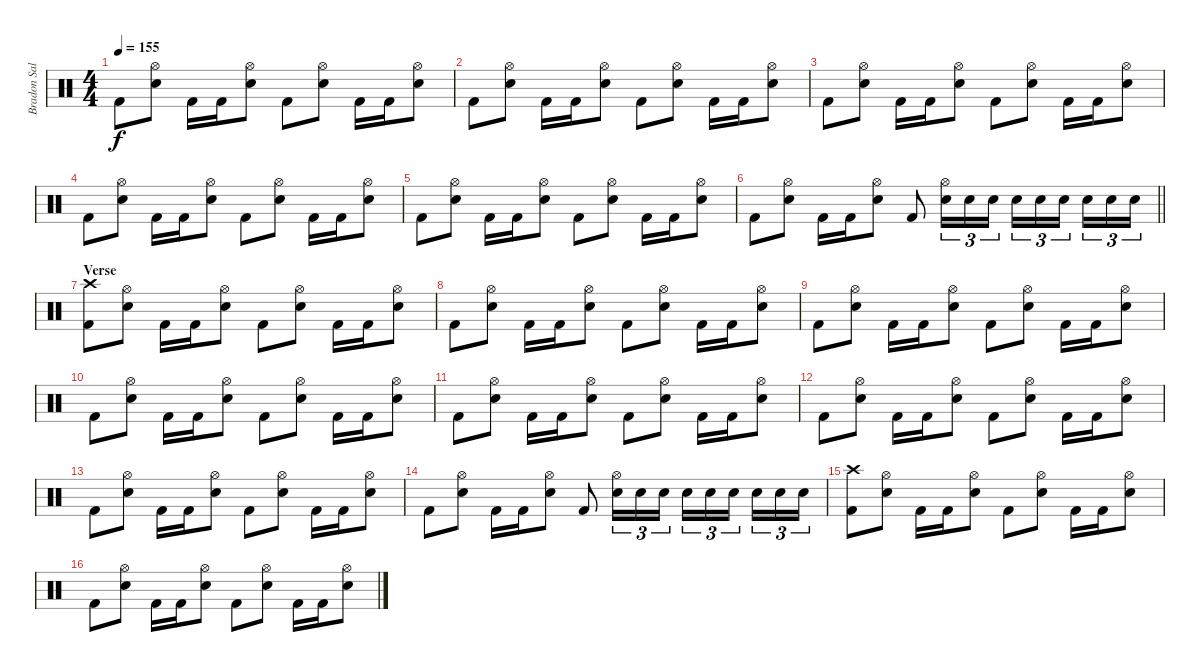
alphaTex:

\track ("Bradon Saller" "Bradon Sal") {instrument percussion}
\staff {score}
\articulation defaults
\ts (4 4)
\tempo 155
\clef neutral
\ks c "Kick (hit) 2".8{dy f}
("Hi-Hat (open)" "Electric Snare (hit)").8 "Kick (hit) 2".16 "Kick (hit) 2".16 ("Hi-Hat (open)" "Electric Snare (hit)").8 "Kick (hit) 2".8 ("Hi-Hat (open)" "Electric Snare (hit)").8 "Kick (hit) 2".16 "Kick (hit) 2".16 ("Hi-Hat (open)" "Electric Snare (hit)").8 |
"Kick (hit) 2".8 ("Hi-Hat (open)" "Electric Snare (hit)").8 "Kick (hit) 2".16 "Kick (hit) 2".16 ("Hi-Hat (open)" "Electric Snare (hit)").8 "Kick (hit) 2".8 ("Hi-Hat (open)" "Electric Snare (hit)").8 "Kick (hit) 2".16 "Kick (hit) 2".16 ("Hi-Hat (open)" "Electric Snare (hit)").8 |
"Kick (hit) 2".8 ("Hi-Hat (open)" "Electric Snare (hit)").8 "Kick (hit) 2".16 "Kick (hit) 2".16 ("Hi-Hat (open)" "Electric Snare (hit)").8 "Kick (hit) 2".8 ("Hi-Hat (open)" "Electric Snare (hit)").8 "Kick (hit) 2".16 "Kick (hit) 2".16 ("Hi-Hat (open)" "Electric Snare (hit)").8 |
"Kick (hit) 2".8 ("Hi-Hat (open)" "Electric Snare (hit)").8 "Kick (hit) 2".16 "Kick (hit) 2".16 ("Hi-Hat (open)" "Electric Snare (hit)").8 "Kick (hit) 2".8 ("Hi-Hat (open)" "Electric Snare (hit)").8 "Kick (hit) 2".16 "Kick (hit) 2".16 ("Hi-Hat (open)" "Electric Snare (hit)").8 |
"Kick (hit) 2".8 ("Hi-Hat (open)" "Electric Snare (hit)").8 "Kick (hit) 2".16 "Kick (hit) 2".16 ("Hi-Hat (open)" "Electric Snare (hit)").8 "Kick (hit) 2".8 ("Hi-Hat (open)" "Electric Snare (hit)").8 "Kick (hit) 2".16 "Kick (hit) 2".16 ("Hi-Hat (open)" "Electric Snare (hit)").8 |
\barLineRight lightlight "Kick (hit) 2".8
("Hi-Hat (open)" "Electric Snare (hit)").8 "Kick (hit) 2".16 "Kick (hit) 2".16 ("Hi-Hat (open)" "Electric Snare (hit)").8 "Kick (hit) 2".8 ("Hi-Hat (open)" "Electric Snare (hit)").16{tu (3 2)} "Electric Snare (hit)".16{tu (3 2)} "Electric Snare (hit)".16{tu (3 2)} "Electric Snare (hit)".16{tu (3 2)} "Electric Snare (hit)".16{tu (3 2)} "Electric Snare (hit)".16{tu (3 2) beam splitsecondary} "Electric Snare (hit)".16{tu (3 2)} "Electric Snare (hit)".16{tu (3 2)} "Electric Snare (hit)".16{tu (3 2)} |
\section ("" "Verse")
("Crash high (hit)" "Kick (hit) 2").8 ("Hi-Hat (open)" "Electric Snare (hit)").8 "Kick (hit) 2".16 "Kick (hit) 2".16 ("Hi-Hat (open)" "Electric Snare (hit)").8 "Kick (hit) 2".8 ("Hi-Hat (open)" "Electric Snare (hit)").8 "Kick (hit) 2".16 "Kick (hit) 2".16 ("Hi-Hat (open)" "Electric Snare (hit)").8 |
"Kick (hit) 2".8 ("Hi-Hat (open)" "Electric Snare (hit)").8 "Kick (hit) 2".16 "Kick (hit) 2".16 ("Hi-Hat (open)" "Electric Snare (hit)").8 "Kick (hit) 2".8 ("Hi-Hat (open)" "Electric Snare (hit)").8 "Kick (hit) 2".16 "Kick (hit) 2".16 ("Hi-Hat (open)" "Electric Snare (hit)").8 |
"Kick (hit) 2".8 ("Hi-Hat (open)" "Electric Snare (hit)").8 "Kick (hit) 2".16 "Kick (hit) 2".16 ("Hi-Hat (open)" "Electric Snare (hit)").8 "Kick (hit) 2".8 ("Hi-Hat (open)" "Electric Snare (hit)").8 "Kick (hit) 2".16 "Kick (hit) 2".16 ("Hi-Hat (open)" "Electric Snare (hit)").8 |
"Kick (hit) 2".8 ("Hi-Hat (open)" "Electric Snare (hit)").8 "Kick (hit) 2".16 "Kick (hit) 2".16 ("Hi-Hat (open)" "Electric Snare (hit)").8 "Kick (hit) 2".8 ("Hi-Hat (open)" "Electric Snare (hit)").8 "Kick (hit) 2".16 "Kick (hit) 2".16 ("Hi-Hat (open)" "Electric Snare (hit)").8 |
"Kick (hit) 2".8 ("Hi-Hat (open)" "Electric Snare (hit)").8 "Kick (hit) 2".16 "Kick (hit) 2".16 ("Hi-Hat (open)" "Electric Snare (hit)").8 "Kick (hit) 2".8 ("Hi-Hat (open)" "Electric Snare (hit)").8 "Kick (hit) 2".16 "Kick (hit) 2".16 ("Hi-Hat (open)" "Electric Snare (hit)").8 |
"Kick (hit) 2".8 ("Hi-Hat (open)" "Electric Snare (hit)").8 "Kick (hit) 2".16 "Kick (hit) 2".16 ("Hi-Hat (open)" "Electric Snare (hit)").8 "Kick (hit) 2".8 ("Hi-Hat (open)" "Electric Snare (hit)").8 "Kick (hit) 2".16 "Kick (hit) 2".16 ("Hi-Hat (open)" "Electric Snare (hit)").8 |
"Kick (hit) 2".8 ("Hi-Hat (open)" "Electric Snare (hit)").8 "Kick (hit) 2".16 "Kick (hit) 2".16 ("Hi-Hat (open)" "Electric Snare (hit)").8 "Kick (hit) 2".8 ("Hi-Hat (open)" "Electric Snare (hit)").8 "Kick (hit) 2".16 "Kick (hit) 2".16 ("Hi-Hat (open)" "Electric Snare (hit)").8 |
"Kick (hit) 2".8 ("Hi-Hat (open)" "Electric Snare (hit)").8 "Kick (hit) 2".16 "Kick (hit) 2".16 ("Hi-Hat (open)" "Electric Snare (hit)").8 "Kick (hit) 2".8 ("Hi-Hat (open)" "Electric Snare (hit)").16{tu (3 2)} "Electric Snare (hit)".16{tu (3 2)} "Electric Snare (hit)".16{tu (3 2)} "Electric Snare (hit)".16{tu (3 2)} "Electric Snare (hit)".16{tu (3 2)} "Electric Snare (hit)".16{tu (3 2) beam splitsecondary} "Electric Snare (hit)".16{tu (3 2)} "Electric Snare (hit)".16{tu (3 2)} "Electric Snare (hit)".16{tu (3 2)} |
("Crash high (hit)" "Kick (hit) 2").8 ("Hi-Hat (open)" "Electric Snare (hit)").8 "Kick (hit) 2".16 "Kick (hit) 2".16 ("Hi-Hat (open)" "Electric Snare (hit)").8 "Kick (hit) 2".8 ("Hi-Hat (open)" "Electric Snare (hit)").8 "Kick (hit) 2".16 "Kick (hit) 2".16 ("Hi-Hat (open)" "Electric Snare (hit)").8 |
"Kick (hit) 2".8 ("Hi-Hat (open)" "Electric Snare (hit)").8 "Kick (hit) 2".16 "Kick (hit) 2".16 ("Hi-Hat (open)" "Electric Snare (hit)").8 "Kick (hit) 2".8 ("Hi-Hat (open)" "Electric Snare (hit)").8 "Kick (hit) 2".16 "Kick (hit) 2".16 ("Hi-Hat (open)" "Electric Snare (hit)").8
